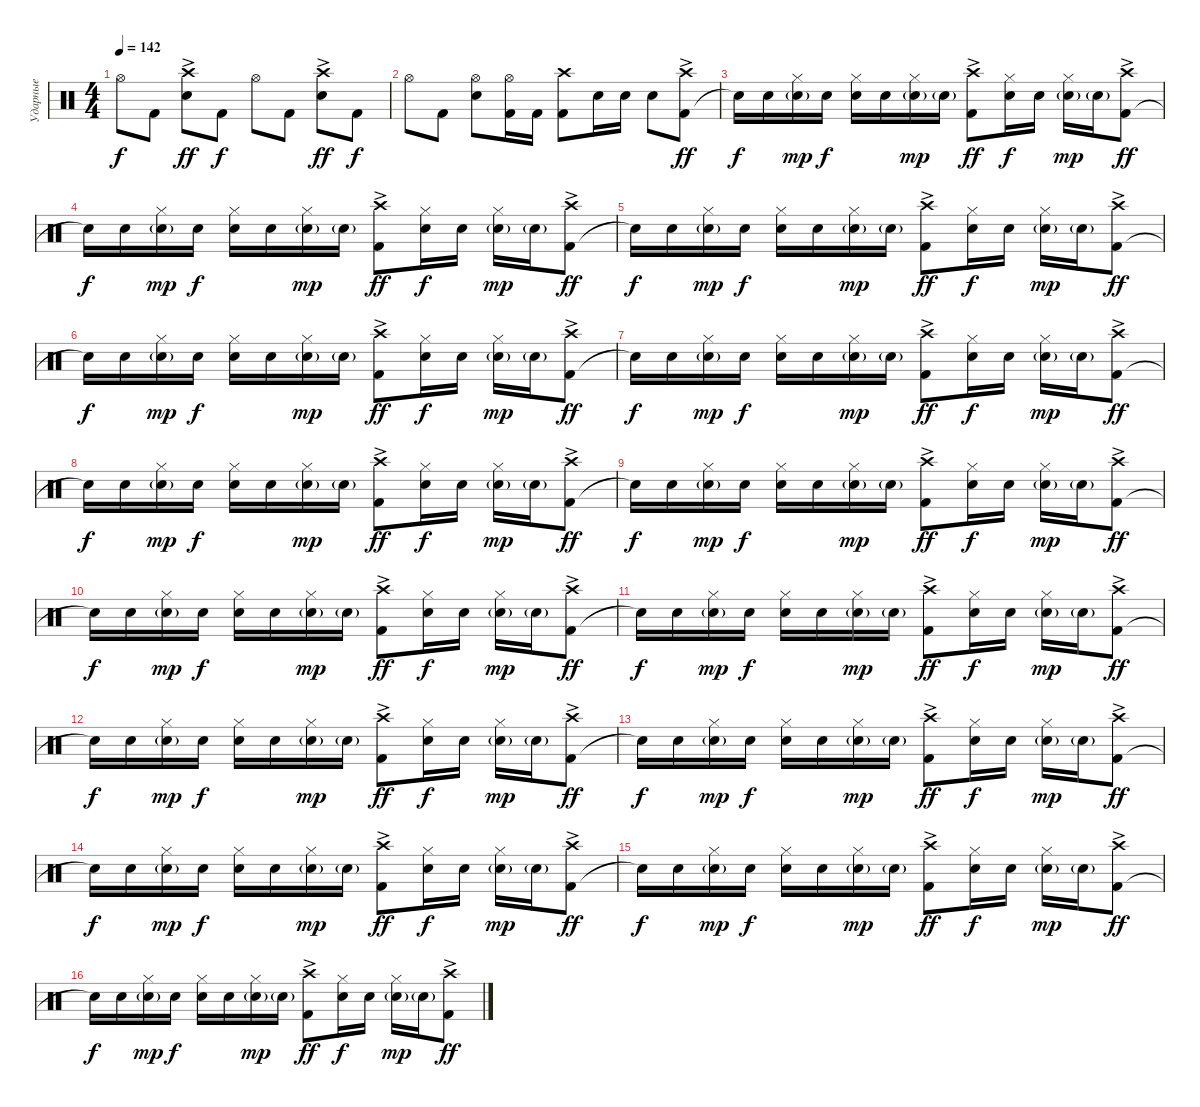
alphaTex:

\track ("Ударные" "Ударные") {instrument percussion}
\staff {score}
\articulation defaults
\ts (4 4)
\tempo 142
\clef neutral
\ks c "Hi-Hat (open)".8{dy f} "Kick (hit) 2".8
("Snare (hit) 2" "Crash high (hit)"{ac}).8{dy ff} "Kick (hit) 2".8{dy f} "Hi-Hat (open)".8 "Kick (hit) 2".8 ("Snare (hit) 2" "Crash high (hit)"{ac}).8{dy ff} "Kick (hit) 2".8{dy f} |
"Hi-Hat (open)".8 "Kick (hit) 2".8 ("Snare (hit) 2" "Hi-Hat (open)").8 ("Kick (hit) 2" "Hi-Hat (open)").16 "Kick (hit) 2".16 ("Kick (hit) 2" "Crash high (hit)").8 "Electric Snare (hit)".16 "Electric Snare (hit)".16 "Snare (hit) 2".8 ("Kick (hit) 2" "Crash high (hit)"{ac}).8{dy ff} |
"Snare (hit)"{t}.16{dy f} "Snare (hit) 2".16 ("Electric Snare (hit)"{g} "Hi-Hat (closed)").16{dy mp} "Snare (hit) 2".16{dy f} ("Snare (hit) 2" "Hi-Hat (closed)").16 "Snare (hit) 2".16 ("Electric Snare (hit)"{g} "Hi-Hat (closed)").16{dy mp} "Electric Snare (hit)"{g}.16 ("Kick (hit) 2" "Crash high (hit)"{ac}).8{dy ff} ("Snare (hit) 2" "Hi-Hat (closed)").16{dy f} "Snare (hit) 2".16 ("Electric Snare (hit)"{g} "Hi-Hat (closed)").16{dy mp} "Electric Snare (hit)"{g}.16 ("Kick (hit) 2" "Crash high (hit)"{ac}).8{dy ff} |
"Snare (hit)"{t}.16{dy f} "Snare (hit) 2".16 ("Electric Snare (hit)"{g} "Hi-Hat (closed)").16{dy mp} "Snare (hit) 2".16{dy f} ("Snare (hit) 2" "Hi-Hat (closed)").16 "Snare (hit) 2".16 ("Electric Snare (hit)"{g} "Hi-Hat (closed)").16{dy mp} "Electric Snare (hit)"{g}.16 ("Kick (hit) 2" "Crash high (hit)"{ac}).8{dy ff} ("Snare (hit) 2" "Hi-Hat (closed)").16{dy f} "Snare (hit) 2".16 ("Electric Snare (hit)"{g} "Hi-Hat (closed)").16{dy mp} "Electric Snare (hit)"{g}.16 ("Kick (hit) 2" "Crash high (hit)"{ac}).8{dy ff} |
"Snare (hit)"{t}.16{dy f} "Snare (hit) 2".16 ("Electric Snare (hit)"{g} "Hi-Hat (closed)").16{dy mp} "Snare (hit) 2".16{dy f} ("Snare (hit) 2" "Hi-Hat (closed)").16 "Snare (hit) 2".16 ("Electric Snare (hit)"{g} "Hi-Hat (closed)").16{dy mp} "Electric Snare (hit)"{g}.16 ("Kick (hit) 2" "Crash high (hit)"{ac}).8{dy ff} ("Snare (hit) 2" "Hi-Hat (closed)").16{dy f} "Snare (hit) 2".16 ("Electric Snare (hit)"{g} "Hi-Hat (closed)").16{dy mp} "Electric Snare (hit)"{g}.16 ("Kick (hit) 2" "Crash high (hit)"{ac}).8{dy ff} |
"Snare (hit)"{t}.16{dy f} "Snare (hit) 2".16 ("Electric Snare (hit)"{g} "Hi-Hat (closed)").16{dy mp} "Snare (hit) 2".16{dy f} ("Snare (hit) 2" "Hi-Hat (closed)").16 "Snare (hit) 2".16 ("Electric Snare (hit)"{g} "Hi-Hat (closed)").16{dy mp} "Electric Snare (hit)"{g}.16 ("Kick (hit) 2" "Crash high (hit)"{ac}).8{dy ff} ("Snare (hit) 2" "Hi-Hat (closed)").16{dy f} "Snare (hit) 2".16 ("Electric Snare (hit)"{g} "Hi-Hat (closed)").16{dy mp} "Electric Snare (hit)"{g}.16 ("Kick (hit) 2" "Crash high (hit)"{ac}).8{dy ff} |
"Snare (hit)"{t}.16{dy f} "Snare (hit) 2".16 ("Electric Snare (hit)"{g} "Hi-Hat (closed)").16{dy mp} "Snare (hit) 2".16{dy f} ("Snare (hit) 2" "Hi-Hat (closed)").16 "Snare (hit) 2".16 ("Electric Snare (hit)"{g} "Hi-Hat (closed)").16{dy mp} "Electric Snare (hit)"{g}.16 ("Kick (hit) 2" "Crash high (hit)"{ac}).8{dy ff} ("Snare (hit) 2" "Hi-Hat (closed)").16{dy f} "Snare (hit) 2".16 ("Electric Snare (hit)"{g} "Hi-Hat (closed)").16{dy mp} "Electric Snare (hit)"{g}.16 ("Kick (hit) 2" "Crash high (hit)"{ac}).8{dy ff} |
"Snare (hit)"{t}.16{dy f} "Snare (hit) 2".16 ("Electric Snare (hit)"{g} "Hi-Hat (closed)").16{dy mp} "Snare (hit) 2".16{dy f} ("Snare (hit) 2" "Hi-Hat (closed)").16 "Snare (hit) 2".16 ("Electric Snare (hit)"{g} "Hi-Hat (closed)").16{dy mp} "Electric Snare (hit)"{g}.16 ("Kick (hit) 2" "Crash high (hit)"{ac}).8{dy ff} ("Snare (hit) 2" "Hi-Hat (closed)").16{dy f} "Snare (hit) 2".16 ("Electric Snare (hit)"{g} "Hi-Hat (closed)").16{dy mp} "Electric Snare (hit)"{g}.16 ("Kick (hit) 2" "Crash high (hit)"{ac}).8{dy ff} |
"Snare (hit)"{t}.16{dy f} "Snare (hit) 2".16 ("Electric Snare (hit)"{g} "Hi-Hat (closed)").16{dy mp} "Snare (hit) 2".16{dy f} ("Snare (hit) 2" "Hi-Hat (closed)").16 "Snare (hit) 2".16 ("Electric Snare (hit)"{g} "Hi-Hat (closed)").16{dy mp} "Electric Snare (hit)"{g}.16 ("Kick (hit) 2" "Crash high (hit)"{ac}).8{dy ff} ("Snare (hit) 2" "Hi-Hat (closed)").16{dy f} "Snare (hit) 2".16 ("Electric Snare (hit)"{g} "Hi-Hat (closed)").16{dy mp} "Electric Snare (hit)"{g}.16 ("Kick (hit) 2" "Crash high (hit)"{ac}).8{dy ff} |
"Snare (hit)"{t}.16{dy f} "Snare (hit) 2".16 ("Electric Snare (hit)"{g} "Hi-Hat (closed)").16{dy mp} "Snare (hit) 2".16{dy f} ("Snare (hit) 2" "Hi-Hat (closed)").16 "Snare (hit) 2".16 ("Electric Snare (hit)"{g} "Hi-Hat (closed)").16{dy mp} "Electric Snare (hit)"{g}.16 ("Kick (hit) 2" "Crash high (hit)"{ac}).8{dy ff} ("Snare (hit) 2" "Hi-Hat (closed)").16{dy f} "Snare (hit) 2".16 ("Electric Snare (hit)"{g} "Hi-Hat (closed)").16{dy mp} "Electric Snare (hit)"{g}.16 ("Kick (hit) 2" "Crash high (hit)"{ac}).8{dy ff} |
"Snare (hit)"{t}.16{dy f} "Snare (hit) 2".16 ("Electric Snare (hit)"{g} "Hi-Hat (closed)").16{dy mp} "Snare (hit) 2".16{dy f} ("Snare (hit) 2" "Hi-Hat (closed)").16 "Snare (hit) 2".16 ("Electric Snare (hit)"{g} "Hi-Hat (closed)").16{dy mp} "Electric Snare (hit)"{g}.16 ("Kick (hit) 2" "Crash high (hit)"{ac}).8{dy ff} ("Snare (hit) 2" "Hi-Hat (closed)").16{dy f} "Snare (hit) 2".16 ("Electric Snare (hit)"{g} "Hi-Hat (closed)").16{dy mp} "Electric Snare (hit)"{g}.16 ("Kick (hit) 2" "Crash high (hit)"{ac}).8{dy ff} |
"Snare (hit)"{t}.16{dy f} "Snare (hit) 2".16 ("Electric Snare (hit)"{g} "Hi-Hat (closed)").16{dy mp} "Snare (hit) 2".16{dy f} ("Snare (hit) 2" "Hi-Hat (closed)").16 "Snare (hit) 2".16 ("Electric Snare (hit)"{g} "Hi-Hat (closed)").16{dy mp} "Electric Snare (hit)"{g}.16 ("Kick (hit) 2" "Crash high (hit)"{ac}).8{dy ff} ("Snare (hit) 2" "Hi-Hat (closed)").16{dy f} "Snare (hit) 2".16 ("Electric Snare (hit)"{g} "Hi-Hat (closed)").16{dy mp} "Electric Snare (hit)"{g}.16 ("Kick (hit) 2" "Crash high (hit)"{ac}).8{dy ff} |
"Snare (hit)"{t}.16{dy f} "Snare (hit) 2".16 ("Electric Snare (hit)"{g} "Hi-Hat (closed)").16{dy mp} "Snare (hit) 2".16{dy f} ("Snare (hit) 2" "Hi-Hat (closed)").16 "Snare (hit) 2".16 ("Electric Snare (hit)"{g} "Hi-Hat (closed)").16{dy mp} "Electric Snare (hit)"{g}.16 ("Kick (hit) 2" "Crash high (hit)"{ac}).8{dy ff} ("Snare (hit) 2" "Hi-Hat (closed)").16{dy f} "Snare (hit) 2".16 ("Electric Snare (hit)"{g} "Hi-Hat (closed)").16{dy mp} "Electric Snare (hit)"{g}.16 ("Kick (hit) 2" "Crash high (hit)"{ac}).8{dy ff} |
"Snare (hit)"{t}.16{dy f} "Snare (hit) 2".16 ("Electric Snare (hit)"{g} "Hi-Hat (closed)").16{dy mp} "Snare (hit) 2".16{dy f} ("Snare (hit) 2" "Hi-Hat (closed)").16 "Snare (hit) 2".16 ("Electric Snare (hit)"{g} "Hi-Hat (closed)").16{dy mp} "Electric Snare (hit)"{g}.16 ("Kick (hit) 2" "Crash high (hit)"{ac}).8{dy ff} ("Snare (hit) 2" "Hi-Hat (closed)").16{dy f} "Snare (hit) 2".16 ("Electric Snare (hit)"{g} "Hi-Hat (closed)").16{dy mp} "Electric Snare (hit)"{g}.16 ("Kick (hit) 2" "Crash high (hit)"{ac}).8{dy ff} |
"Snare (hit)"{t}.16{dy f} "Snare (hit) 2".16 ("Electric Snare (hit)"{g} "Hi-Hat (closed)").16{dy mp} "Snare (hit) 2".16{dy f} ("Snare (hit) 2" "Hi-Hat (closed)").16 "Snare (hit) 2".16 ("Electric Snare (hit)"{g} "Hi-Hat (closed)").16{dy mp} "Electric Snare (hit)"{g}.16 ("Kick (hit) 2" "Crash high (hit)"{ac}).8{dy ff} ("Snare (hit) 2" "Hi-Hat (closed)").16{dy f} "Snare (hit) 2".16 ("Electric Snare (hit)"{g} "Hi-Hat (closed)").16{dy mp} "Electric Snare (hit)"{g}.16 ("Kick (hit) 2" "Crash high (hit)"{ac}).8{dy ff} |
"Snare (hit)"{t}.16{dy f} "Snare (hit) 2".16 ("Electric Snare (hit)"{g} "Hi-Hat (closed)").16{dy mp} "Snare (hit) 2".16{dy f} ("Snare (hit) 2" "Hi-Hat (closed)").16 "Snare (hit) 2".16 ("Electric Snare (hit)"{g} "Hi-Hat (closed)").16{dy mp} "Electric Snare (hit)"{g}.16 ("Kick (hit) 2" "Crash high (hit)"{ac}).8{dy ff} ("Snare (hit) 2" "Hi-Hat (closed)").16{dy f} "Snare (hit) 2".16 ("Electric Snare (hit)"{g} "Hi-Hat (closed)").16{dy mp} "Electric Snare (hit)"{g}.16 ("Kick (hit) 2" "Crash high (hit)"{ac}).8{dy ff}
